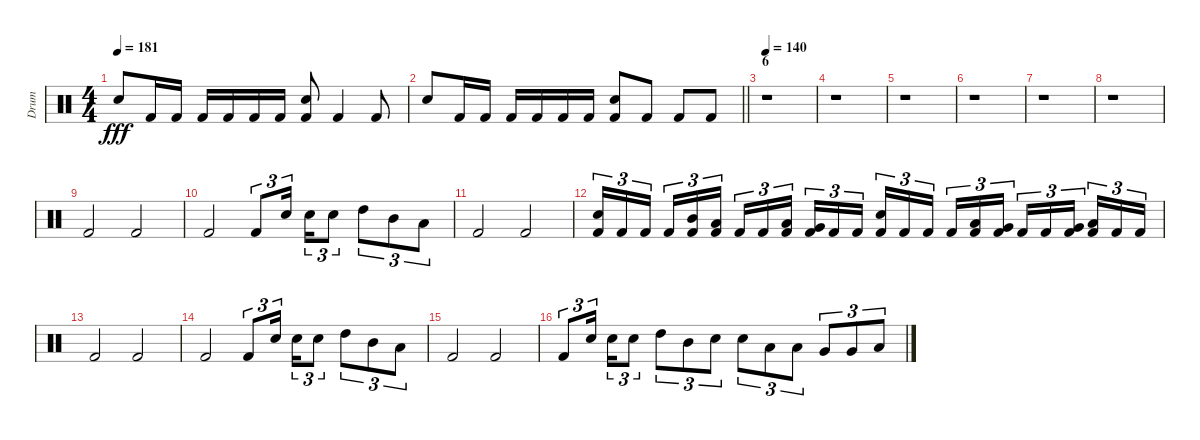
\track ("Drum" "Drum") {instrument percussion}
\staff {score}
\articulation defaults
\ts (4 4)
\tempo 181
\clef neutral
\ks c "Electric Snare (hit)".8{dy fff} "Kick (hit) 2".16 "Kick (hit) 2".16 "Kick (hit) 2".16 "Kick (hit) 2".16 "Kick (hit) 2".16 "Kick (hit) 2".16
("Electric Snare (hit)" "Kick (hit) 2").8 "Kick (hit) 2".4 "Kick (hit) 2".8 |
\barLineRight lightlight "Electric Snare (hit)".8 "Kick (hit) 2".16 "Kick (hit) 2".16 "Kick (hit) 2".16 "Kick (hit) 2".16 "Kick (hit) 2".16 "Kick (hit) 2".16
("Electric Snare (hit)" "Kick (hit) 2").8 "Kick (hit) 2".8 "Kick (hit) 2".8 "Kick (hit) 2".8 |
\section ("" "6")
\tempo 140
r.1 |
r.1 |
r.1 |
r.1 |
r.1 |
r.1 |
"Kick (hit) 2".2 "Kick (hit) 2".2 |
"Kick (hit) 2".2 "Kick (hit) 2".8{tu (3 2)} "Electric Snare (hit)".16{tu (3 2) beam splitsecondary} "Electric Snare (hit)".16{tu (3 2)} "Electric Snare (hit)".8{tu (3 2)} "High Tom (hit)".8{tu (3 2)} "Mid Tom (hit)".8{tu (3 2)} "Low Tom (hit)".8{tu (3 2)} |
"Kick (hit) 2".2 "Kick (hit) 2".2 |
("Electric Snare (hit)" "Kick (hit) 2").16{tu (3 2)} "Kick (hit) 2".16{tu (3 2)} "Kick (hit) 2".16{tu (3 2) beam splitsecondary} "Kick (hit) 2".16{tu (3 2)} ("Mid Tom (hit)" "Kick (hit) 2").16{tu (3 2)} ("Low Tom (hit)" "Kick (hit) 2").16{tu (3 2)} "Kick (hit) 2".16{tu (3 2)} "Kick (hit) 2".16{tu (3 2)} ("Low Tom (hit)" "Kick (hit) 2").16{tu (3 2) beam splitsecondary} ("Very Low Tom (hit)" "Kick (hit) 2").16{tu (3 2)} "Kick (hit) 2".16{tu (3 2)} "Kick (hit) 2".16{tu (3 2)} ("Electric Snare (hit)" "Kick (hit) 2").16{tu (3 2)} "Kick (hit) 2".16{tu (3 2)} "Kick (hit) 2".16{tu (3 2) beam splitsecondary} "Kick (hit) 2".16{tu (3 2)} ("Low Tom (hit)" "Kick (hit) 2").16{tu (3 2)} ("Very Low Tom (hit)" "Kick (hit) 2").16{tu (3 2)} "Kick (hit) 2".16{tu (3 2)} "Kick (hit) 2".16{tu (3 2)} ("Very Low Tom (hit)" "Kick (hit) 2").16{tu (3 2) beam splitsecondary} ("Low Floor Tom (hit)" "Kick (hit) 2").16{tu (3 2)} "Kick (hit) 2".16{tu (3 2)} "Kick (hit) 2".16{tu (3 2)} |
"Kick (hit) 2".2 "Kick (hit) 2".2 |
"Kick (hit) 2".2 "Kick (hit) 2".8{tu (3 2)} "Electric Snare (hit)".16{tu (3 2) beam splitsecondary} "Electric Snare (hit)".16{tu (3 2)} "Electric Snare (hit)".8{tu (3 2)} "High Tom (hit)".8{tu (3 2)} "Mid Tom (hit)".8{tu (3 2)} "Low Tom (hit)".8{tu (3 2)} |
"Kick (hit) 2".2 "Kick (hit) 2".2 |
"Kick (hit) 2".8{tu (3 2)} "Electric Snare (hit)".16{tu (3 2) beam splitsecondary} "Electric Snare (hit)".16{tu (3 2)} "Electric Snare (hit)".8{tu (3 2)} "High Tom (hit)".8{tu (3 2)} "Mid Tom (hit)".8{tu (3 2)} "Electric Snare (hit)".8{tu (3 2)} "Electric Snare (hit)".8{tu (3 2)} "Low Tom (hit)".8{tu (3 2)} "Low Tom (hit)".8{tu (3 2)} "Very Low Tom (hit)".8{tu (3 2)} "Very Low Tom (hit)".8{tu (3 2)} "Low Floor Tom (hit)".8{tu (3 2)}
